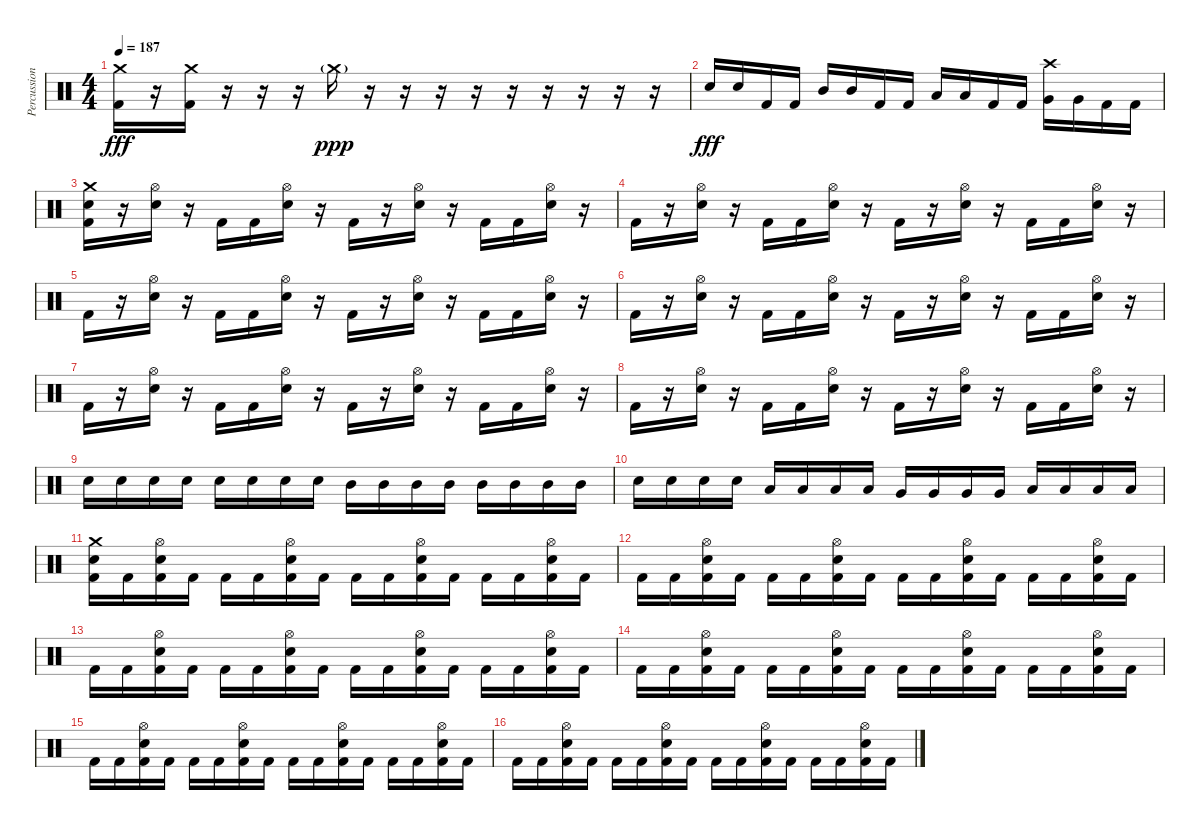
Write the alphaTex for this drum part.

\track ("Percussion" "Percussion") {instrument percussion}
\staff {score}
\articulation defaults
\ts (4 4)
\tempo 187
\clef neutral
\ks c
("Crash medium (hit)" "Kick (hit) 2").16{dy fff} r.16 ("Crash medium (hit)" "Kick (hit) 2").16 r.16 r.16 r.16 "Crash medium (hit)"{g}.16{dy ppp} r.16 r.16 r.16 r.16 r.16 r.16 r.16 r.16 r.16 |
"Snare (hit) 2".16{dy fff} "Snare (hit) 2".16 "Kick (hit) 2".16 "Kick (hit) 2".16 "Mid Tom (hit)".16 "Mid Tom (hit)".16 "Kick (hit) 2".16 "Kick (hit) 2".16 "Low Tom (hit)".16 "Low Tom (hit)".16 "Kick (hit) 2".16 "Kick (hit) 2".16 ("Crash high (hit)" "Very Low Tom (hit)").16 "Very Low Tom (hit)".16 "Kick (hit) 2".16 "Kick (hit) 2".16 |
("Crash medium (hit)" "Snare (hit) 2" "Kick (hit) 2").16 r.16 ("Hi-Hat (open)" "Snare (hit) 2").16 r.16 "Kick (hit) 2".16 "Kick (hit) 2".16 ("Hi-Hat (open)" "Snare (hit) 2").16 r.16 "Kick (hit) 2".16 r.16 ("Hi-Hat (open)" "Snare (hit) 2").16 r.16 "Kick (hit) 2".16 "Kick (hit) 2".16 ("Hi-Hat (open)" "Snare (hit) 2").16 r.16 |
"Kick (hit) 2".16 r.16 ("Hi-Hat (open)" "Snare (hit) 2").16 r.16 "Kick (hit) 2".16 "Kick (hit) 2".16 ("Hi-Hat (open)" "Snare (hit) 2").16 r.16 "Kick (hit) 2".16 r.16 ("Hi-Hat (open)" "Snare (hit) 2").16 r.16 "Kick (hit) 2".16 "Kick (hit) 2".16 ("Hi-Hat (open)" "Snare (hit) 2").16 r.16 |
"Kick (hit) 2".16 r.16 ("Hi-Hat (open)" "Snare (hit) 2").16 r.16 "Kick (hit) 2".16 "Kick (hit) 2".16 ("Hi-Hat (open)" "Snare (hit) 2").16 r.16 "Kick (hit) 2".16 r.16 ("Hi-Hat (open)" "Snare (hit) 2").16 r.16 "Kick (hit) 2".16 "Kick (hit) 2".16 ("Hi-Hat (open)" "Snare (hit) 2").16 r.16 |
"Kick (hit) 2".16 r.16 ("Hi-Hat (open)" "Snare (hit) 2").16 r.16 "Kick (hit) 2".16 "Kick (hit) 2".16 ("Hi-Hat (open)" "Snare (hit) 2").16 r.16 "Kick (hit) 2".16 r.16 ("Hi-Hat (open)" "Snare (hit) 2").16 r.16 "Kick (hit) 2".16 "Kick (hit) 2".16 ("Hi-Hat (open)" "Snare (hit) 2").16 r.16 |
"Kick (hit) 2".16 r.16 ("Hi-Hat (open)" "Snare (hit) 2").16 r.16 "Kick (hit) 2".16 "Kick (hit) 2".16 ("Hi-Hat (open)" "Snare (hit) 2").16 r.16 "Kick (hit) 2".16 r.16 ("Hi-Hat (open)" "Snare (hit) 2").16 r.16 "Kick (hit) 2".16 "Kick (hit) 2".16 ("Hi-Hat (open)" "Snare (hit) 2").16 r.16 |
"Kick (hit) 2".16 r.16 ("Hi-Hat (open)" "Snare (hit) 2").16 r.16 "Kick (hit) 2".16 "Kick (hit) 2".16 ("Hi-Hat (open)" "Snare (hit) 2").16 r.16 "Kick (hit) 2".16 r.16 ("Hi-Hat (open)" "Snare (hit) 2").16 r.16 "Kick (hit) 2".16 "Kick (hit) 2".16 ("Hi-Hat (open)" "Snare (hit) 2").16 r.16 |
"Snare (hit) 2".16 "Snare (hit) 2".16 "Snare (hit) 2".16 "Snare (hit) 2".16 "Snare (hit) 2".16 "Snare (hit) 2".16 "Snare (hit) 2".16 "Snare (hit) 2".16 "Mid Tom (hit)".16 "Mid Tom (hit)".16 "Mid Tom (hit)".16 "Mid Tom (hit)".16 "Mid Tom (hit)".16 "Mid Tom (hit)".16 "Mid Tom (hit)".16 "Mid Tom (hit)".16 |
"Snare (hit) 2".16 "Snare (hit) 2".16 "Snare (hit) 2".16 "Snare (hit) 2".16 "Low Tom (hit)".16 "Low Tom (hit)".16 "Low Tom (hit)".16 "Low Tom (hit)".16 "Very Low Tom (hit)".16 "Very Low Tom (hit)".16 "Very Low Tom (hit)".16 "Very Low Tom (hit)".16 "Low Floor Tom (hit)".16 "Low Floor Tom (hit)".16 "Low Floor Tom (hit)".16 "Low Floor Tom (hit)".16 |
("Crash medium (hit)" "Snare (hit) 2" "Kick (hit) 2").16 "Kick (hit) 2".16 ("Hi-Hat (open)" "Snare (hit) 2" "Kick (hit) 2").16 "Kick (hit) 2".16 "Kick (hit) 2".16 "Kick (hit) 2".16 ("Hi-Hat (open)" "Snare (hit) 2" "Kick (hit) 2").16 "Kick (hit) 2".16 "Kick (hit) 2".16 "Kick (hit) 2".16 ("Hi-Hat (open)" "Snare (hit) 2" "Kick (hit) 2").16 "Kick (hit) 2".16 "Kick (hit) 2".16 "Kick (hit) 2".16 ("Hi-Hat (open)" "Snare (hit) 2" "Kick (hit) 2").16 "Kick (hit) 2".16 |
"Kick (hit) 2".16 "Kick (hit) 2".16 ("Hi-Hat (open)" "Snare (hit) 2" "Kick (hit) 2").16 "Kick (hit) 2".16 "Kick (hit) 2".16 "Kick (hit) 2".16 ("Hi-Hat (open)" "Snare (hit) 2" "Kick (hit) 2").16 "Kick (hit) 2".16 "Kick (hit) 2".16 "Kick (hit) 2".16 ("Hi-Hat (open)" "Snare (hit) 2" "Kick (hit) 2").16 "Kick (hit) 2".16 "Kick (hit) 2".16 "Kick (hit) 2".16 ("Hi-Hat (open)" "Snare (hit) 2" "Kick (hit) 2").16 "Kick (hit) 2".16 |
"Kick (hit) 2".16 "Kick (hit) 2".16 ("Hi-Hat (open)" "Snare (hit) 2" "Kick (hit) 2").16 "Kick (hit) 2".16 "Kick (hit) 2".16 "Kick (hit) 2".16 ("Hi-Hat (open)" "Snare (hit) 2" "Kick (hit) 2").16 "Kick (hit) 2".16 "Kick (hit) 2".16 "Kick (hit) 2".16 ("Hi-Hat (open)" "Snare (hit) 2" "Kick (hit) 2").16 "Kick (hit) 2".16 "Kick (hit) 2".16 "Kick (hit) 2".16 ("Hi-Hat (open)" "Snare (hit) 2" "Kick (hit) 2").16 "Kick (hit) 2".16 |
"Kick (hit) 2".16 "Kick (hit) 2".16 ("Hi-Hat (open)" "Snare (hit) 2" "Kick (hit) 2").16 "Kick (hit) 2".16 "Kick (hit) 2".16 "Kick (hit) 2".16 ("Hi-Hat (open)" "Snare (hit) 2" "Kick (hit) 2").16 "Kick (hit) 2".16 "Kick (hit) 2".16 "Kick (hit) 2".16 ("Hi-Hat (open)" "Snare (hit) 2" "Kick (hit) 2").16 "Kick (hit) 2".16 "Kick (hit) 2".16 "Kick (hit) 2".16 ("Hi-Hat (open)" "Snare (hit) 2" "Kick (hit) 2").16 "Kick (hit) 2".16 |
"Kick (hit) 2".16 "Kick (hit) 2".16 ("Hi-Hat (open)" "Snare (hit) 2" "Kick (hit) 2").16 "Kick (hit) 2".16 "Kick (hit) 2".16 "Kick (hit) 2".16 ("Hi-Hat (open)" "Snare (hit) 2" "Kick (hit) 2").16 "Kick (hit) 2".16 "Kick (hit) 2".16 "Kick (hit) 2".16 ("Hi-Hat (open)" "Snare (hit) 2" "Kick (hit) 2").16 "Kick (hit) 2".16 "Kick (hit) 2".16 "Kick (hit) 2".16 ("Hi-Hat (open)" "Snare (hit) 2" "Kick (hit) 2").16 "Kick (hit) 2".16 |
"Kick (hit) 2".16 "Kick (hit) 2".16 ("Hi-Hat (open)" "Snare (hit) 2" "Kick (hit) 2").16 "Kick (hit) 2".16 "Kick (hit) 2".16 "Kick (hit) 2".16 ("Hi-Hat (open)" "Snare (hit) 2" "Kick (hit) 2").16 "Kick (hit) 2".16 "Kick (hit) 2".16 "Kick (hit) 2".16 ("Hi-Hat (open)" "Snare (hit) 2" "Kick (hit) 2").16 "Kick (hit) 2".16 "Kick (hit) 2".16 "Kick (hit) 2".16 ("Hi-Hat (open)" "Snare (hit) 2" "Kick (hit) 2").16 "Kick (hit) 2".16
